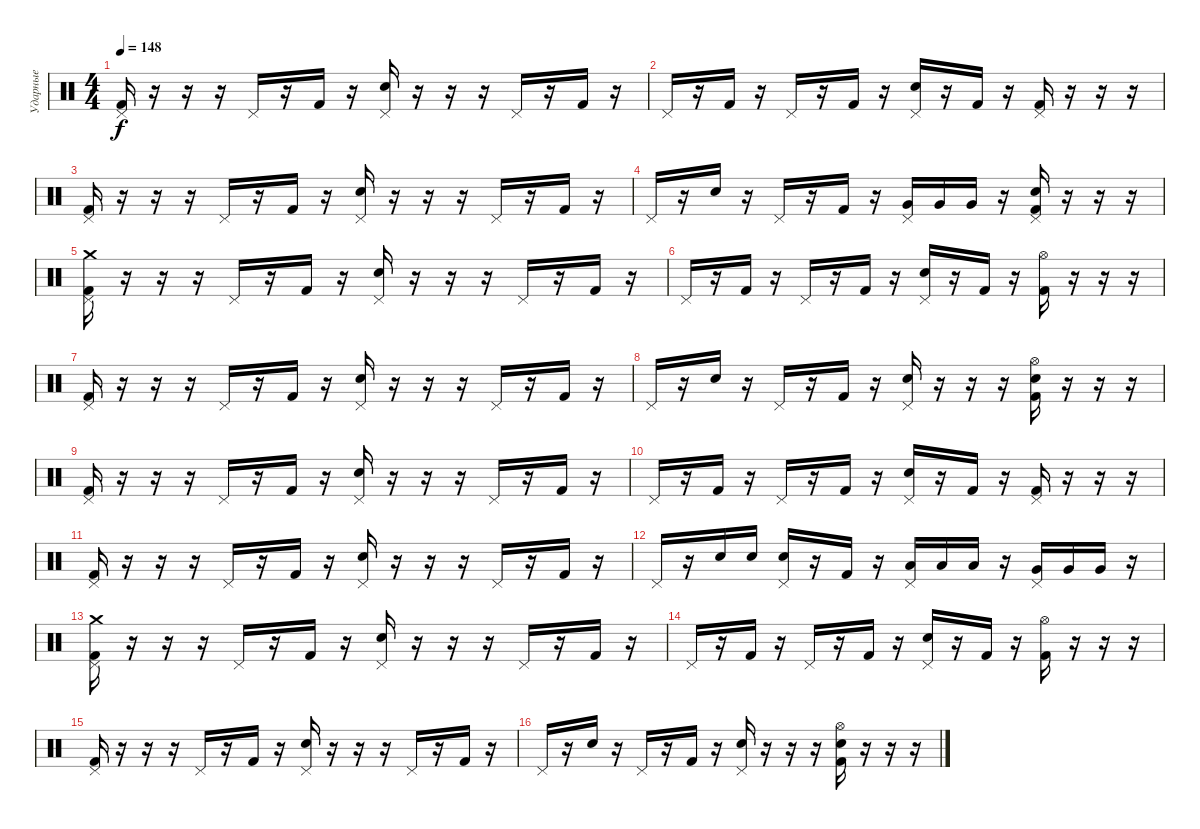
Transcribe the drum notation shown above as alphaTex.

\track ("Ударные" "Ударные") {instrument percussion}
\staff {score}
\articulation defaults
\ts (4 4)
\tempo 148
\clef neutral
\ks c
("Pedal Hi-Hat (hit)" "Kick (hit) 2").16{dy f} r.16 r.16 r.16 "Pedal Hi-Hat (hit)".16 r.16 "Kick (hit) 2".16 r.16 ("Pedal Hi-Hat (hit)" "Electric Snare (hit)").16 r.16 r.16 r.16 "Pedal Hi-Hat (hit)".16 r.16 "Kick (hit) 2".16 r.16 |
"Pedal Hi-Hat (hit)".16 r.16 "Kick (hit) 2".16 r.16 "Pedal Hi-Hat (hit)".16 r.16 "Kick (hit) 2".16 r.16 ("Pedal Hi-Hat (hit)" "Electric Snare (hit)").16 r.16 "Kick (hit) 2".16 r.16 ("Pedal Hi-Hat (hit)" "Kick (hit) 2").16 r.16 r.16 r.16 |
("Pedal Hi-Hat (hit)" "Kick (hit) 2").16 r.16 r.16 r.16 "Pedal Hi-Hat (hit)".16 r.16 "Kick (hit) 2".16 r.16 ("Pedal Hi-Hat (hit)" "Electric Snare (hit)").16 r.16 r.16 r.16 "Pedal Hi-Hat (hit)".16 r.16 "Kick (hit) 2".16 r.16 |
"Pedal Hi-Hat (hit)".16 r.16 "Electric Snare (hit)".16 r.16 "Pedal Hi-Hat (hit)".16 r.16 "Kick (hit) 2".16 r.16 ("Pedal Hi-Hat (hit)" "Very Low Tom (hit)").16 "Very Low Tom (hit)".16 "Very Low Tom (hit)".16 r.16 ("Pedal Hi-Hat (hit)" "Electric Snare (hit)" "Kick (hit) 2").16 r.16 r.16 r.16 |
("Crash medium (hit)" "Pedal Hi-Hat (hit)" "Kick (hit) 2").16 r.16 r.16 r.16 "Pedal Hi-Hat (hit)".16 r.16 "Kick (hit) 2".16 r.16 ("Pedal Hi-Hat (hit)" "Electric Snare (hit)").16 r.16 r.16 r.16 "Pedal Hi-Hat (hit)".16 r.16 "Kick (hit) 2".16 r.16 |
"Pedal Hi-Hat (hit)".16 r.16 "Kick (hit) 2".16 r.16 "Pedal Hi-Hat (hit)".16 r.16 "Kick (hit) 2".16 r.16 ("Pedal Hi-Hat (hit)" "Electric Snare (hit)").16 r.16 "Kick (hit) 2".16 r.16 ("Hi-Hat (open)" "Kick (hit) 2").16 r.16 r.16 r.16 |
("Pedal Hi-Hat (hit)" "Kick (hit) 2").16 r.16 r.16 r.16 "Pedal Hi-Hat (hit)".16 r.16 "Kick (hit) 2".16 r.16 ("Pedal Hi-Hat (hit)" "Electric Snare (hit)").16 r.16 r.16 r.16 "Pedal Hi-Hat (hit)".16 r.16 "Kick (hit) 2".16 r.16 |
"Pedal Hi-Hat (hit)".16 r.16 "Electric Snare (hit)".16 r.16 "Pedal Hi-Hat (hit)".16 r.16 "Kick (hit) 2".16 r.16 ("Pedal Hi-Hat (hit)" "Electric Snare (hit)").16 r.16 r.16 r.16 ("Hi-Hat (open)" "Electric Snare (hit)" "Kick (hit) 2").16 r.16 r.16 r.16 |
("Pedal Hi-Hat (hit)" "Kick (hit) 2").16 r.16 r.16 r.16 "Pedal Hi-Hat (hit)".16 r.16 "Kick (hit) 2".16 r.16 ("Pedal Hi-Hat (hit)" "Electric Snare (hit)").16 r.16 r.16 r.16 "Pedal Hi-Hat (hit)".16 r.16 "Kick (hit) 2".16 r.16 |
"Pedal Hi-Hat (hit)".16 r.16 "Kick (hit) 2".16 r.16 "Pedal Hi-Hat (hit)".16 r.16 "Kick (hit) 2".16 r.16 ("Pedal Hi-Hat (hit)" "Electric Snare (hit)").16 r.16 "Kick (hit) 2".16 r.16 ("Pedal Hi-Hat (hit)" "Kick (hit) 2").16 r.16 r.16 r.16 |
("Pedal Hi-Hat (hit)" "Kick (hit) 2").16 r.16 r.16 r.16 "Pedal Hi-Hat (hit)".16 r.16 "Kick (hit) 2".16 r.16 ("Pedal Hi-Hat (hit)" "Electric Snare (hit)").16 r.16 r.16 r.16 "Pedal Hi-Hat (hit)".16 r.16 "Kick (hit) 2".16 r.16 |
"Pedal Hi-Hat (hit)".16 r.16 "Electric Snare (hit)".16 "Electric Snare (hit)".16 ("Pedal Hi-Hat (hit)" "Electric Snare (hit)").16 r.16 "Kick (hit) 2".16 r.16 ("Pedal Hi-Hat (hit)" "Low Tom (hit)").16 "Low Tom (hit)".16 "Low Tom (hit)".16 r.16 ("Pedal Hi-Hat (hit)" "Very Low Tom (hit)").16 "Very Low Tom (hit)".16 "Very Low Tom (hit)".16 r.16 |
("Crash medium (hit)" "Pedal Hi-Hat (hit)" "Kick (hit) 2").16 r.16 r.16 r.16 "Pedal Hi-Hat (hit)".16 r.16 "Kick (hit) 2".16 r.16 ("Pedal Hi-Hat (hit)" "Electric Snare (hit)").16 r.16 r.16 r.16 "Pedal Hi-Hat (hit)".16 r.16 "Kick (hit) 2".16 r.16 |
"Pedal Hi-Hat (hit)".16 r.16 "Kick (hit) 2".16 r.16 "Pedal Hi-Hat (hit)".16 r.16 "Kick (hit) 2".16 r.16 ("Pedal Hi-Hat (hit)" "Electric Snare (hit)").16 r.16 "Kick (hit) 2".16 r.16 ("Hi-Hat (open)" "Kick (hit) 2").16 r.16 r.16 r.16 |
("Pedal Hi-Hat (hit)" "Kick (hit) 2").16 r.16 r.16 r.16 "Pedal Hi-Hat (hit)".16 r.16 "Kick (hit) 2".16 r.16 ("Pedal Hi-Hat (hit)" "Electric Snare (hit)").16 r.16 r.16 r.16 "Pedal Hi-Hat (hit)".16 r.16 "Kick (hit) 2".16 r.16 |
"Pedal Hi-Hat (hit)".16 r.16 "Electric Snare (hit)".16 r.16 "Pedal Hi-Hat (hit)".16 r.16 "Kick (hit) 2".16 r.16 ("Pedal Hi-Hat (hit)" "Electric Snare (hit)").16 r.16 r.16 r.16 ("Hi-Hat (open)" "Electric Snare (hit)" "Kick (hit) 2").16 r.16 r.16 r.16
